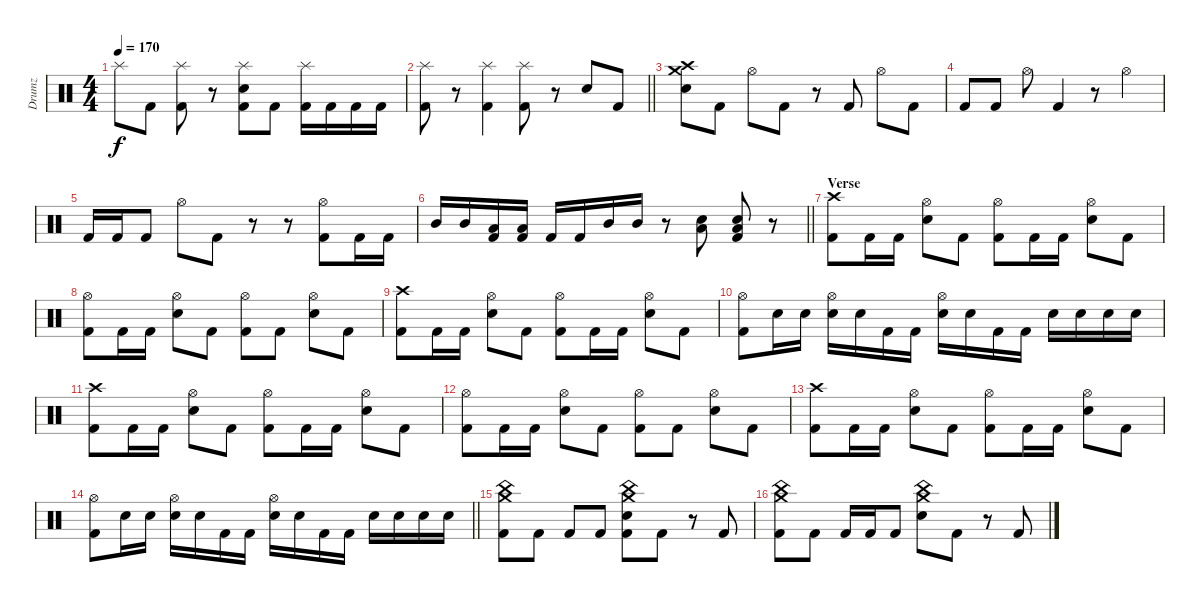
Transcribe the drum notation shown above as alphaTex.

\track ("Drumz" "Drumz") {instrument percussion}
\staff {score}
\articulation defaults
\ts (4 4)
\tempo 170
\clef neutral
\ks c "Splash (hit)".8{dy f} "Kick (hit) 2".8
("Splash (hit)" "Kick (hit) 2").8 r.8 ("Electric Snare (hit)" "Splash (hit)" "Kick (hit) 2").8 "Kick (hit) 2".8 ("Kick (hit) 2" "Splash (hit)").16 "Kick (hit) 2".16 "Kick (hit) 2".16 "Kick (hit) 2".16 |
\barLineRight lightlight
("Kick (hit) 2" "Splash (hit)").8 r.8 ("Splash (hit)" "Kick (hit) 2").4 ("Splash (hit)" "Kick (hit) 2").8 r.8 "Electric Snare (hit)".8 "Kick (hit) 2".8 |
\section ("" "")
("Crash high (hit)" "Electric Snare (hit)" "Crash medium (hit)").8 "Kick (hit) 2".8 "Hi-Hat (open)".8 "Kick (hit) 2".8 r.8 "Kick (hit) 2".8 "Hi-Hat (open)".8 "Kick (hit) 2".8 |
"Kick (hit) 2".8 "Kick (hit) 2".8 "Hi-Hat (open)".8 "Kick (hit) 2".4 r.8 "Hi-Hat (open)".4 |
"Kick (hit) 2".16 "Kick (hit) 2".16 "Kick (hit) 2".8 "Hi-Hat (open)".8 "Kick (hit) 2".8 r.8 r.8 ("Kick (hit) 2" "Hi-Hat (open)").8 "Kick (hit) 2".16 "Kick (hit) 2".16 |
\barLineRight lightlight "Mid Tom (hit)".16 "Mid Tom (hit)".16
("Low Tom (hit)" "Kick (hit) 2").16 ("Low Tom (hit)" "Kick (hit) 2").16 "Kick (hit) 2".16 "Kick (hit) 2".16 "Mid Tom (hit)".16 "Mid Tom (hit)".16 r.8 ("Low Tom (hit)" "Electric Snare (hit)").8 ("Kick (hit) 2" "Electric Snare (hit)" "Low Floor Tom (hit)").8 r.8 |
\section ("" "Verse")
("Kick (hit) 2" "Crash high (hit)").8 "Kick (hit) 2".16 "Kick (hit) 2".16 ("Electric Snare (hit)" "Hi-Hat (open)").8 "Kick (hit) 2".8 ("Kick (hit) 2" "Hi-Hat (open)").8 "Kick (hit) 2".16 "Kick (hit) 2".16 ("Electric Snare (hit)" "Hi-Hat (open)").8 "Kick (hit) 2".8 |
("Kick (hit) 2" "Hi-Hat (open)").8 "Kick (hit) 2".16 "Kick (hit) 2".16 ("Electric Snare (hit)" "Hi-Hat (open)").8 "Kick (hit) 2".8 ("Kick (hit) 2" "Hi-Hat (open)").8 "Kick (hit) 2".8 ("Electric Snare (hit)" "Hi-Hat (open)").8 "Kick (hit) 2".8 |
("Kick (hit) 2" "Crash high (hit)").8 "Kick (hit) 2".16 "Kick (hit) 2".16 ("Electric Snare (hit)" "Hi-Hat (open)").8 "Kick (hit) 2".8 ("Kick (hit) 2" "Hi-Hat (open)").8 "Kick (hit) 2".16 "Kick (hit) 2".16 ("Electric Snare (hit)" "Hi-Hat (open)").8 "Kick (hit) 2".8 |
("Kick (hit) 2" "Hi-Hat (open)").8 "Electric Snare (hit)".16 "Electric Snare (hit)".16 ("Electric Snare (hit)" "Hi-Hat (open)").16 "Electric Snare (hit)".16 "Kick (hit) 2".16 "Kick (hit) 2".16 ("Electric Snare (hit)" "Hi-Hat (open)").16 "Electric Snare (hit)".16 "Kick (hit) 2".16 "Kick (hit) 2".16 "Electric Snare (hit)".16 "Electric Snare (hit)".16 "Electric Snare (hit)".16 "Electric Snare (hit)".16 |
("Kick (hit) 2" "Crash high (hit)").8 "Kick (hit) 2".16 "Kick (hit) 2".16 ("Electric Snare (hit)" "Hi-Hat (open)").8 "Kick (hit) 2".8 ("Kick (hit) 2" "Hi-Hat (open)").8 "Kick (hit) 2".16 "Kick (hit) 2".16 ("Electric Snare (hit)" "Hi-Hat (open)").8 "Kick (hit) 2".8 |
("Kick (hit) 2" "Hi-Hat (open)").8 "Kick (hit) 2".16 "Kick (hit) 2".16 ("Electric Snare (hit)" "Hi-Hat (open)").8 "Kick (hit) 2".8 ("Kick (hit) 2" "Hi-Hat (open)").8 "Kick (hit) 2".8 ("Electric Snare (hit)" "Hi-Hat (open)").8 "Kick (hit) 2".8 |
("Kick (hit) 2" "Crash high (hit)").8 "Kick (hit) 2".16 "Kick (hit) 2".16 ("Electric Snare (hit)" "Hi-Hat (open)").8 "Kick (hit) 2".8 ("Kick (hit) 2" "Hi-Hat (open)").8 "Kick (hit) 2".16 "Kick (hit) 2".16 ("Electric Snare (hit)" "Hi-Hat (open)").8 "Kick (hit) 2".8 |
\barLineRight lightlight
("Kick (hit) 2" "Hi-Hat (open)").8 "Electric Snare (hit)".16 "Electric Snare (hit)".16 ("Electric Snare (hit)" "Hi-Hat (open)").16 "Electric Snare (hit)".16 "Kick (hit) 2".16 "Kick (hit) 2".16 ("Electric Snare (hit)" "Hi-Hat (open)").16 "Electric Snare (hit)".16 "Kick (hit) 2".16 "Kick (hit) 2".16 "Electric Snare (hit)".16 "Electric Snare (hit)".16 "Electric Snare (hit)".16 "Electric Snare (hit)".16 |
\section ("" "")
("Kick (hit) 2" "Crash medium (hit)" "China (hit)").8 "Kick (hit) 2".8 "Kick (hit) 2".8 "Kick (hit) 2".8 ("Crash medium (hit)" "China (hit)" "Electric Snare (hit)" "Kick (hit) 2").8 "Kick (hit) 2".8 r.8 "Kick (hit) 2".8 |
("Kick (hit) 2" "Crash medium (hit)" "China (hit)").8 "Kick (hit) 2".8 "Kick (hit) 2".16 "Kick (hit) 2".16 "Kick (hit) 2".8 ("Crash medium (hit)" "China (hit)" "Electric Snare (hit)").8 "Kick (hit) 2".8 r.8 "Kick (hit) 2".8
